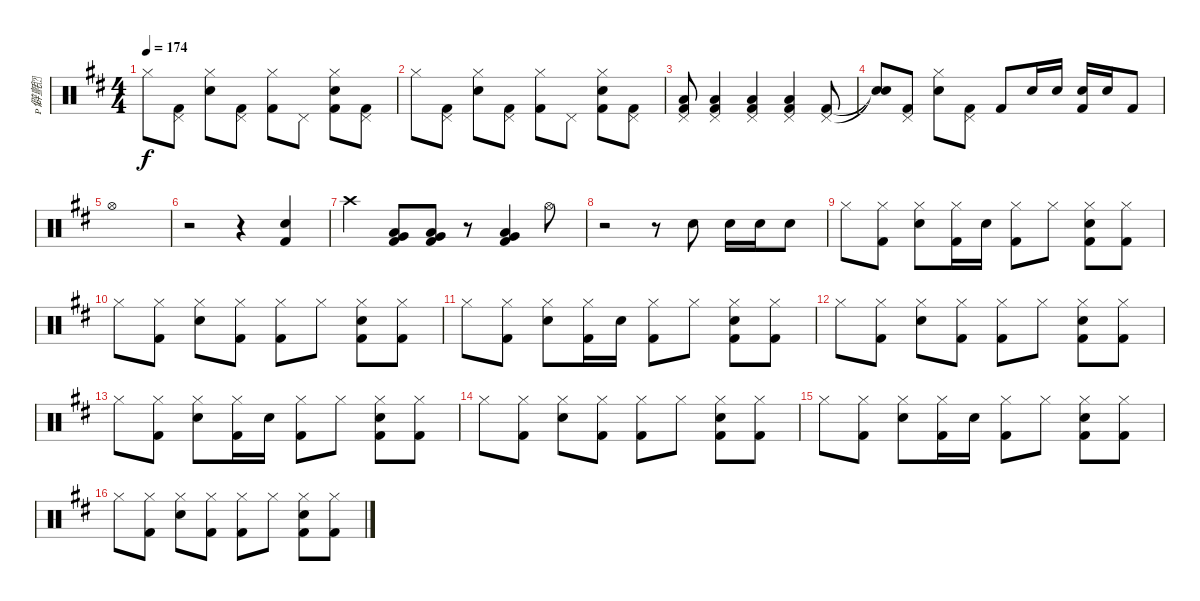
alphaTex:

\track ("僻氈" "僻氈") {instrument percussion}
\staff {score}
\articulation defaults
\ts (4 4)
\tempo 174
\clef neutral
\ks d "Hi-Hat (closed)".8{dy f}
("Pedal Hi-Hat (hit)" "Kick (hit) 2").8 ("Hi-Hat (closed)" "Electric Snare (hit)").8 ("Pedal Hi-Hat (hit)" "Kick (hit) 2").8 ("Hi-Hat (closed)" "Kick (hit) 2").8 "Pedal Hi-Hat (hit)".8 ("Hi-Hat (closed)" "Electric Snare (hit)" "Kick (hit) 2").8 ("Pedal Hi-Hat (hit)" "Kick (hit) 2").8 |
"Hi-Hat (closed)".8 ("Pedal Hi-Hat (hit)" "Kick (hit) 2").8 ("Hi-Hat (closed)" "Electric Snare (hit)").8 ("Pedal Hi-Hat (hit)" "Kick (hit) 2").8 ("Hi-Hat (closed)" "Kick (hit) 2").8 "Pedal Hi-Hat (hit)".8 ("Hi-Hat (closed)" "Electric Snare (hit)" "Kick (hit) 2").8 ("Pedal Hi-Hat (hit)" "Kick (hit) 2").8 |
("Pedal Hi-Hat (hit)" "Low Tom (hit)" "Kick (hit) 2").8 ("Pedal Hi-Hat (hit)" "Low Tom (hit)" "Kick (hit) 2").4 ("Pedal Hi-Hat (hit)" "Low Tom (hit)" "Kick (hit) 2").4 ("Pedal Hi-Hat (hit)" "Low Tom (hit)" "Kick (hit) 2").4 ("Pedal Hi-Hat (hit)" "Kick (hit) 2").8 |
("Snare (hit)"{t} "Snare (hit)"{t}).8 ("Pedal Hi-Hat (hit)" "Kick (hit) 2").8 ("Hi-Hat (closed)" "Electric Snare (hit)").8 ("Pedal Hi-Hat (hit)" "Kick (hit) 2").8 "Kick (hit) 2".8 "Electric Snare (hit)".16 "Electric Snare (hit)".16 ("Electric Snare (hit)" "Kick (hit) 2").16 "Electric Snare (hit)".16 "Kick (hit) 2".8 |
"Hi-Hat (open)".1 |
r.2 r.4 ("Electric Snare (hit)" "Kick (hit) 2").4 |
"Crash high (hit)".4 ("Low Tom (hit)" "Very Low Tom (hit)" "Kick (hit) 2").8 ("Low Tom (hit)" "Very Low Tom (hit)" "Kick (hit) 2").8 r.8 ("Low Tom (hit)" "Very Low Tom (hit)" "Kick (hit) 2").4 "Hi-Hat (open)".8 |
r.2 r.8 "Electric Snare (hit)".8 "Electric Snare (hit)".16 "Electric Snare (hit)".16 "Electric Snare (hit)".8 |
"Hi-Hat (closed)".8 ("Hi-Hat (closed)" "Kick (hit) 2").8 ("Hi-Hat (closed)" "Electric Snare (hit)").8 ("Hi-Hat (closed)" "Kick (hit) 2").16 "Electric Snare (hit)".16 ("Hi-Hat (closed)" "Kick (hit) 2").8 "Hi-Hat (closed)".8 ("Hi-Hat (closed)" "Electric Snare (hit)" "Kick (hit) 2").8 ("Hi-Hat (closed)" "Kick (hit) 2").8 |
"Hi-Hat (closed)".8 ("Hi-Hat (closed)" "Kick (hit) 2").8 ("Hi-Hat (closed)" "Electric Snare (hit)").8 ("Hi-Hat (closed)" "Kick (hit) 2").8 ("Hi-Hat (closed)" "Kick (hit) 2").8 "Hi-Hat (closed)".8 ("Hi-Hat (closed)" "Electric Snare (hit)" "Kick (hit) 2").8 ("Hi-Hat (closed)" "Kick (hit) 2").8 |
"Hi-Hat (closed)".8 ("Hi-Hat (closed)" "Kick (hit) 2").8 ("Hi-Hat (closed)" "Electric Snare (hit)").8 ("Hi-Hat (closed)" "Kick (hit) 2").16 "Electric Snare (hit)".16 ("Hi-Hat (closed)" "Kick (hit) 2").8 "Hi-Hat (closed)".8 ("Hi-Hat (closed)" "Electric Snare (hit)" "Kick (hit) 2").8 ("Hi-Hat (closed)" "Kick (hit) 2").8 |
"Hi-Hat (closed)".8 ("Hi-Hat (closed)" "Kick (hit) 2").8 ("Hi-Hat (closed)" "Electric Snare (hit)").8 ("Hi-Hat (closed)" "Kick (hit) 2").8 ("Hi-Hat (closed)" "Kick (hit) 2").8 "Hi-Hat (closed)".8 ("Hi-Hat (closed)" "Electric Snare (hit)" "Kick (hit) 2").8 ("Hi-Hat (closed)" "Kick (hit) 2").8 |
"Hi-Hat (closed)".8 ("Hi-Hat (closed)" "Kick (hit) 2").8 ("Hi-Hat (closed)" "Electric Snare (hit)").8 ("Hi-Hat (closed)" "Kick (hit) 2").16 "Electric Snare (hit)".16 ("Hi-Hat (closed)" "Kick (hit) 2").8 "Hi-Hat (closed)".8 ("Hi-Hat (closed)" "Electric Snare (hit)" "Kick (hit) 2").8 ("Hi-Hat (closed)" "Kick (hit) 2").8 |
"Hi-Hat (closed)".8 ("Hi-Hat (closed)" "Kick (hit) 2").8 ("Hi-Hat (closed)" "Electric Snare (hit)").8 ("Hi-Hat (closed)" "Kick (hit) 2").8 ("Hi-Hat (closed)" "Kick (hit) 2").8 "Hi-Hat (closed)".8 ("Hi-Hat (closed)" "Electric Snare (hit)" "Kick (hit) 2").8 ("Hi-Hat (closed)" "Kick (hit) 2").8 |
"Hi-Hat (closed)".8 ("Hi-Hat (closed)" "Kick (hit) 2").8 ("Hi-Hat (closed)" "Electric Snare (hit)").8 ("Hi-Hat (closed)" "Kick (hit) 2").16 "Electric Snare (hit)".16 ("Hi-Hat (closed)" "Kick (hit) 2").8 "Hi-Hat (closed)".8 ("Hi-Hat (closed)" "Electric Snare (hit)" "Kick (hit) 2").8 ("Hi-Hat (closed)" "Kick (hit) 2").8 |
"Hi-Hat (closed)".8 ("Hi-Hat (closed)" "Kick (hit) 2").8 ("Hi-Hat (closed)" "Electric Snare (hit)").8 ("Hi-Hat (closed)" "Kick (hit) 2").8 ("Hi-Hat (closed)" "Kick (hit) 2").8 "Hi-Hat (closed)".8 ("Hi-Hat (closed)" "Electric Snare (hit)" "Kick (hit) 2").8 ("Hi-Hat (closed)" "Kick (hit) 2").8
